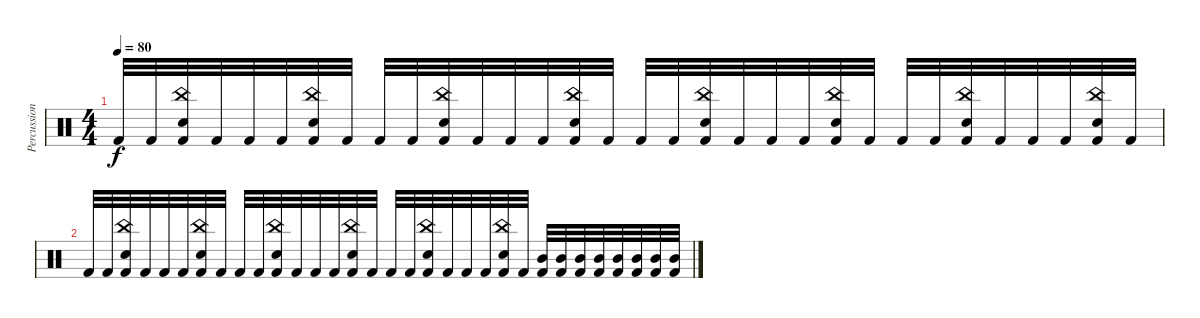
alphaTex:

\track ("Percussion" "Percussion") {instrument percussion}
\staff {score}
\articulation defaults
\ts (4 4)
\tempo 80
\clef neutral
\ks c "Kick (hit) 2".32{dy f} "Kick (hit) 2".32
("China (hit)" "Snare (hit) 2" "Kick (hit) 2").32 "Kick (hit) 2".32 "Kick (hit) 2".32 "Kick (hit) 2".32 ("China (hit)" "Snare (hit) 2" "Kick (hit) 2").32 "Kick (hit) 2".32 "Kick (hit) 2".32 "Kick (hit) 2".32 ("China (hit)" "Snare (hit) 2" "Kick (hit) 2").32 "Kick (hit) 2".32 "Kick (hit) 2".32 "Kick (hit) 2".32 ("China (hit)" "Snare (hit) 2" "Kick (hit) 2").32 "Kick (hit) 2".32 "Kick (hit) 2".32 "Kick (hit) 2".32 ("China (hit)" "Snare (hit) 2" "Kick (hit) 2").32 "Kick (hit) 2".32 "Kick (hit) 2".32 "Kick (hit) 2".32 ("China (hit)" "Snare (hit) 2" "Kick (hit) 2").32 "Kick (hit) 2".32 "Kick (hit) 2".32 "Kick (hit) 2".32 ("China (hit)" "Snare (hit) 2" "Kick (hit) 2").32 "Kick (hit) 2".32 "Kick (hit) 2".32 "Kick (hit) 2".32 ("China (hit)" "Snare (hit) 2" "Kick (hit) 2").32 "Kick (hit) 2".32 |
"Kick (hit) 2".32 "Kick (hit) 2".32 ("China (hit)" "Snare (hit) 2" "Kick (hit) 2").32 "Kick (hit) 2".32 "Kick (hit) 2".32 "Kick (hit) 2".32 ("China (hit)" "Snare (hit) 2" "Kick (hit) 2").32 "Kick (hit) 2".32 "Kick (hit) 2".32 "Kick (hit) 2".32 ("China (hit)" "Snare (hit) 2" "Kick (hit) 2").32 "Kick (hit) 2".32 "Kick (hit) 2".32 "Kick (hit) 2".32 ("China (hit)" "Snare (hit) 2" "Kick (hit) 2").32 "Kick (hit) 2".32 "Kick (hit) 2".32 "Kick (hit) 2".32 ("China (hit)" "Snare (hit) 2" "Kick (hit) 2").32 "Kick (hit) 2".32 "Kick (hit) 2".32 "Kick (hit) 2".32 ("China (hit)" "Snare (hit) 2" "Kick (hit) 2").32 "Kick (hit) 2".32 ("Mid Tom (hit)" "Kick (hit) 2").32 ("Mid Tom (hit)" "Kick (hit) 2").32 ("Mid Tom (hit)" "Kick (hit) 2").32 ("Mid Tom (hit)" "Kick (hit) 2").32 ("Mid Tom (hit)" "Kick (hit) 2").32 ("Mid Tom (hit)" "Kick (hit) 2").32 ("Mid Tom (hit)" "Kick (hit) 2").32 ("Mid Tom (hit)" "Kick (hit) 2").32
